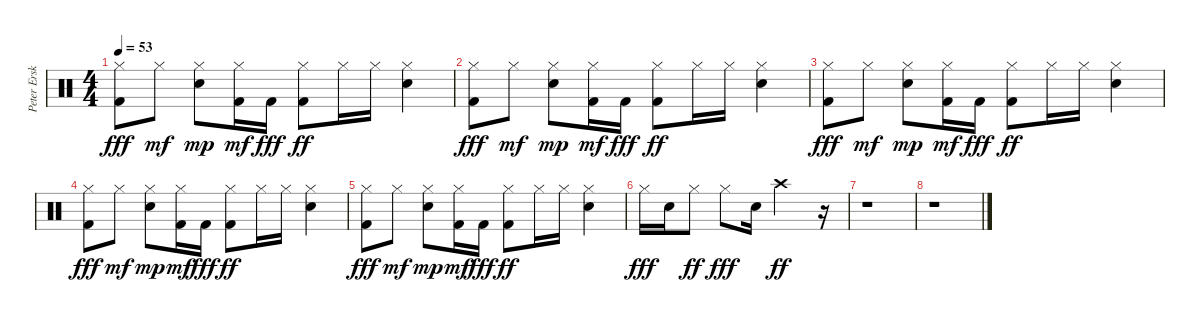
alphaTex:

\track ("Peter Erskine" "Peter Ersk") {instrument percussion}
\staff {score}
\articulation defaults
\ts (4 4)
\tempo 53
\clef neutral
\ks c
("Kick (hit) 2" "Hi-Hat (closed)").8{dy fff} "Hi-Hat (closed)".8{dy mf} ("Snare (hit) 2" "Hi-Hat (closed)").8{dy mp} ("Kick (hit) 2" "Hi-Hat (closed)").16{dy mf} "Kick (hit) 2".16{dy fff} ("Kick (hit) 2" "Hi-Hat (closed)").8{dy ff} "Hi-Hat (closed)".16 "Hi-Hat (closed)".16 ("Snare (hit) 2" "Hi-Hat (closed)").4 |
("Kick (hit) 2" "Hi-Hat (closed)").8{dy fff} "Hi-Hat (closed)".8{dy mf} ("Snare (hit) 2" "Hi-Hat (closed)").8{dy mp} ("Kick (hit) 2" "Hi-Hat (closed)").16{dy mf} "Kick (hit) 2".16{dy fff} ("Kick (hit) 2" "Hi-Hat (closed)").8{dy ff} "Hi-Hat (closed)".16 "Hi-Hat (closed)".16 ("Snare (hit) 2" "Hi-Hat (closed)").4 |
("Kick (hit) 2" "Hi-Hat (closed)").8{dy fff} "Hi-Hat (closed)".8{dy mf} ("Snare (hit) 2" "Hi-Hat (closed)").8{dy mp} ("Kick (hit) 2" "Hi-Hat (closed)").16{dy mf} "Kick (hit) 2".16{dy fff} ("Kick (hit) 2" "Hi-Hat (closed)").8{dy ff} "Hi-Hat (closed)".16 "Hi-Hat (closed)".16 ("Snare (hit) 2" "Hi-Hat (closed)").4 |
("Kick (hit) 2" "Hi-Hat (closed)").8{dy fff} "Hi-Hat (closed)".8{dy mf} ("Snare (hit) 2" "Hi-Hat (closed)").8{dy mp} ("Kick (hit) 2" "Hi-Hat (closed)").16{dy mf} "Kick (hit) 2".16{dy fff} ("Kick (hit) 2" "Hi-Hat (closed)").8{dy ff} "Hi-Hat (closed)".16 "Hi-Hat (closed)".16 ("Snare (hit) 2" "Hi-Hat (closed)").4 |
("Kick (hit) 2" "Hi-Hat (closed)").8{dy fff} "Hi-Hat (closed)".8{dy mf} ("Snare (hit) 2" "Hi-Hat (closed)").8{dy mp} ("Kick (hit) 2" "Hi-Hat (closed)").16{dy mf} "Kick (hit) 2".16{dy fff} ("Kick (hit) 2" "Hi-Hat (closed)").8{dy ff} "Hi-Hat (closed)".16 "Hi-Hat (closed)".16 ("Snare (hit) 2" "Hi-Hat (closed)").4 |
"Hi-Hat (closed)".16{dy fff} "Snare (hit) 2".16 "Hi-Hat (closed)".8{dy ff} "Hi-Hat (closed)".8{dy fff} "Snare (hit) 2".16 "Crash high (hit)".2{dy ff} r.16 |
r.1 |
r.1
